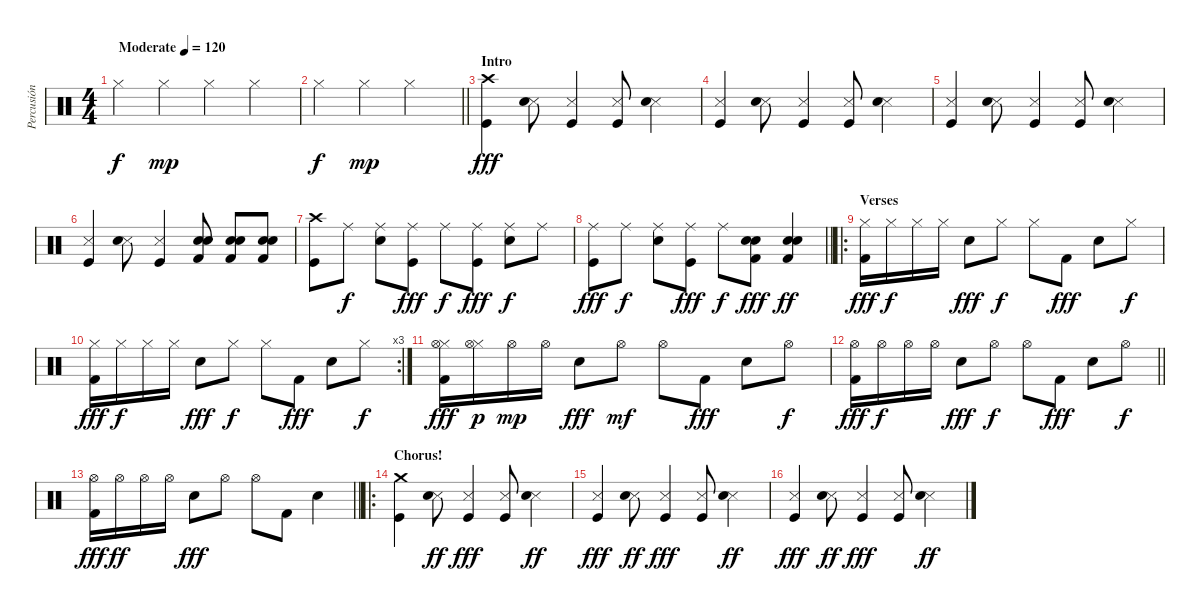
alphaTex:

\track ("Percusión" "Percusión") {instrument percussion}
\staff {score}
\articulation defaults
\ts (4 4)
\tempo (120 "Moderate")
\clef neutral
\ks c "Hi-Hat (closed)".4{dy f} "Hi-Hat (closed)".4{dy mp} "Hi-Hat (closed)".4 "Hi-Hat (closed)".4
|
\barLineRight lightlight "Hi-Hat (closed)".4{dy f} "Hi-Hat (closed)".4{dy mp} "Hi-Hat (closed)".2
|
\section ("" "Intro")
("Crash high (hit)" "Kick (hit)").4{dy fff} ("Snare (side stick) 3" "Electric Snare (hit)").8 ("Snare (side stick) 3" "Kick (hit)").4 ("Snare (side stick) 3" "Kick (hit)").8 ("Snare (side stick) 3" "Electric Snare (hit)").4 |
("Snare (side stick) 3" "Kick (hit)").4 ("Snare (side stick) 3" "Electric Snare (hit)").8 ("Snare (side stick) 3" "Kick (hit)").4 ("Snare (side stick) 3" "Kick (hit)").8 ("Snare (side stick) 3" "Electric Snare (hit)").4 |
("Snare (side stick) 3" "Kick (hit)").4 ("Snare (side stick) 3" "Electric Snare (hit)").8 ("Snare (side stick) 3" "Kick (hit)").4 ("Snare (side stick) 3" "Kick (hit)").8 ("Snare (side stick) 3" "Electric Snare (hit)").4 |
("Snare (side stick) 3" "Kick (hit)").4 ("Snare (side stick) 3" "Electric Snare (hit)").8 ("Snare (side stick) 3" "Kick (hit)").4 ("Electric Snare (hit)" "Electric Snare (hit)" "Kick (hit) 2").8 ("Electric Snare (hit)" "Electric Snare (hit)" "Kick (hit) 2").8 ("Electric Snare (hit)" "Electric Snare (hit)" "Kick (hit) 2").8 |
("Crash high (hit)" "Kick (hit)").8 "Ride (middle)".8{dy f} ("Ride (middle)" "Electric Snare (hit)").8 ("Ride (middle)" "Kick (hit)").8{dy fff} "Ride (middle)".8{dy f} ("Ride (middle)" "Kick (hit)").8{dy fff} ("Ride (middle)" "Electric Snare (hit)").8{dy f} "Ride (middle)".8 |
\barLineRight lightlight
("Ride (middle)" "Kick (hit)").8{dy fff} "Ride (middle)".8{dy f} ("Ride (middle)" "Electric Snare (hit)").8 ("Ride (middle)" "Kick (hit)").8{dy fff} "Ride (middle)".8{dy f} ("Electric Snare (hit)" "Electric Snare (hit)" "Kick (hit) 2").8{dy fff} ("Electric Snare (hit)" "Electric Snare (hit)" "Kick (hit) 2").4{dy ff} |
\ro
\section ("" "Verses")
("Hi-Hat (closed)" "Kick (hit) 2").16{dy fff} "Hi-Hat (closed)".16{dy f} "Hi-Hat (closed)".16 "Hi-Hat (closed)".16 "Electric Snare (hit)".8{dy fff} "Hi-Hat (closed)".8{dy f} "Hi-Hat (closed)".8 "Kick (hit) 2".8{dy fff} "Electric Snare (hit)".8 "Hi-Hat (closed)".8{dy f} |
\rc 3
("Hi-Hat (closed)" "Kick (hit) 2").16{dy fff} "Hi-Hat (closed)".16{dy f} "Hi-Hat (closed)".16 "Hi-Hat (closed)".16 "Electric Snare (hit)".8{dy fff} "Hi-Hat (closed)".8{dy f} "Hi-Hat (closed)".8 "Kick (hit) 2".8{dy fff} "Electric Snare (hit)".8 "Hi-Hat (closed)".8{dy f} |
("Hi-Hat (closed)" "Hi-Hat (open)" "Kick (hit) 2").16{dy fff} ("Hi-Hat (closed)" "Hi-Hat (open)").16{dy p} "Hi-Hat (open)".16{dy mp} "Hi-Hat (open)".16 "Electric Snare (hit)".8{dy fff} "Hi-Hat (open)".8{dy mf} "Hi-Hat (open)".8 "Kick (hit) 2".8{dy fff} "Electric Snare (hit)".8 "Hi-Hat (open)".8{dy f} |
\barLineRight lightlight
("Hi-Hat (open)" "Kick (hit) 2").16{dy fff} "Hi-Hat (open)".16{dy f} "Hi-Hat (open)".16 "Hi-Hat (open)".16 "Electric Snare (hit)".8{dy fff} "Hi-Hat (open)".8{dy f} "Hi-Hat (open)".8 "Kick (hit) 2".8{dy fff} "Electric Snare (hit)".8 "Hi-Hat (open)".8{dy f} |
\barLineRight lightlight
("Hi-Hat (open)" "Kick (hit) 2").16{dy fff} "Hi-Hat (open)".16{dy ff} "Hi-Hat (open)".16 "Hi-Hat (open)".16 "Electric Snare (hit)".8{dy fff} "Hi-Hat (open)".8 "Hi-Hat (open)".8 "Kick (hit) 2".8 "Electric Snare (hit)".4 |
\ro
\section ("" "Chorus!")
("Crash medium (hit)" "Kick (hit)").4 ("Snare (side stick) 3" "Electric Snare (hit)").8{dy ff} ("Snare (side stick) 3" "Kick (hit)").4{dy fff} ("Snare (side stick) 3" "Kick (hit)").8 ("Snare (side stick) 3" "Electric Snare (hit)").4{dy ff} |
("Snare (side stick) 3" "Kick (hit)").4{dy fff} ("Snare (side stick) 3" "Electric Snare (hit)").8{dy ff} ("Snare (side stick) 3" "Kick (hit)").4{dy fff} ("Snare (side stick) 3" "Kick (hit)").8 ("Snare (side stick) 3" "Electric Snare (hit)").4{dy ff} |
("Snare (side stick) 3" "Kick (hit)").4{dy fff} ("Snare (side stick) 3" "Electric Snare (hit)").8{dy ff} ("Snare (side stick) 3" "Kick (hit)").4{dy fff} ("Snare (side stick) 3" "Kick (hit)").8 ("Snare (side stick) 3" "Electric Snare (hit)").4{dy ff}
